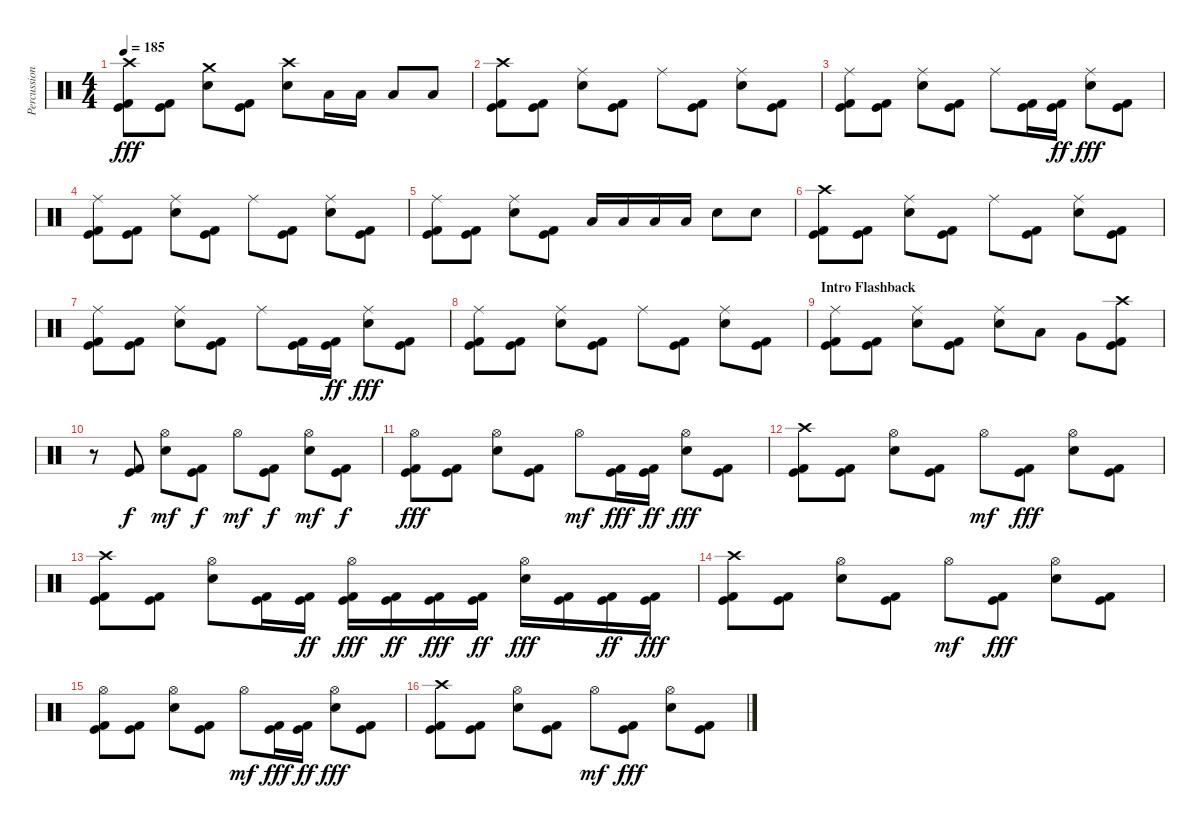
\track ("Percussion" "Percussion") {instrument percussion}
\staff {score}
\articulation defaults
\ts (4 4)
\tempo 185
\clef neutral
\ks c
("Crash high (hit)" "Kick (hit)" "Kick (hit) 2").8{dy fff} ("Kick (hit)" "Kick (hit) 2").8 ("Crash medium (hit)" "Snare (hit) 2").8 ("Kick (hit)" "Kick (hit) 2").8 ("Crash high (hit)" "Snare (hit) 2").8 "Low Tom (hit)".16 "Low Tom (hit)".16 "Low Floor Tom (hit)".8 "Low Floor Tom (hit)".8 |
("Crash high (hit)" "Kick (hit)" "Kick (hit) 2").8 ("Kick (hit)" "Kick (hit) 2").8 ("Ride (middle)" "Snare (hit) 2").8 ("Kick (hit)" "Kick (hit) 2").8 "Ride (middle)".8 ("Kick (hit)" "Kick (hit) 2").8 ("Ride (middle)" "Snare (hit) 2").8 ("Kick (hit)" "Kick (hit) 2").8 |
("Ride (middle)" "Kick (hit)" "Kick (hit) 2").8 ("Kick (hit)" "Kick (hit) 2").8 ("Ride (middle)" "Snare (hit) 2").8 ("Kick (hit)" "Kick (hit) 2").8 "Ride (middle)".8 ("Kick (hit)" "Kick (hit) 2").16 ("Kick (hit)" "Kick (hit) 2").16{dy ff} ("Ride (middle)" "Snare (hit) 2").8{dy fff} ("Kick (hit)" "Kick (hit) 2").8 |
("Ride (middle)" "Kick (hit)" "Kick (hit) 2").8 ("Kick (hit)" "Kick (hit) 2").8 ("Ride (middle)" "Snare (hit) 2").8 ("Kick (hit)" "Kick (hit) 2").8 "Ride (middle)".8 ("Kick (hit)" "Kick (hit) 2").8 ("Ride (middle)" "Snare (hit) 2").8 ("Kick (hit)" "Kick (hit) 2").8 |
("Ride (middle)" "Kick (hit)" "Kick (hit) 2").8 ("Kick (hit)" "Kick (hit) 2").8 ("Ride (middle)" "Snare (hit) 2").8 ("Kick (hit)" "Kick (hit) 2").8 "Low Tom (hit)".16 "Low Tom (hit)".16 "Low Tom (hit)".16 "Low Tom (hit)".16 "Snare (hit) 2".8 "Snare (hit) 2".8 |
("Crash high (hit)" "Kick (hit)" "Kick (hit) 2").8 ("Kick (hit)" "Kick (hit) 2").8 ("Ride (middle)" "Snare (hit) 2").8 ("Kick (hit)" "Kick (hit) 2").8 "Ride (middle)".8 ("Kick (hit)" "Kick (hit) 2").8 ("Ride (middle)" "Snare (hit) 2").8 ("Kick (hit)" "Kick (hit) 2").8 |
("Ride (middle)" "Kick (hit)" "Kick (hit) 2").8 ("Kick (hit)" "Kick (hit) 2").8 ("Ride (middle)" "Snare (hit) 2").8 ("Kick (hit)" "Kick (hit) 2").8 "Ride (middle)".8 ("Kick (hit)" "Kick (hit) 2").16 ("Kick (hit)" "Kick (hit) 2").16{dy ff} ("Ride (middle)" "Snare (hit) 2").8{dy fff} ("Kick (hit)" "Kick (hit) 2").8 |
("Ride (middle)" "Kick (hit)" "Kick (hit) 2").8 ("Kick (hit)" "Kick (hit) 2").8 ("Ride (middle)" "Snare (hit) 2").8 ("Kick (hit)" "Kick (hit) 2").8 "Ride (middle)".8 ("Kick (hit)" "Kick (hit) 2").8 ("Ride (middle)" "Snare (hit) 2").8 ("Kick (hit)" "Kick (hit) 2").8 |
\section ("" "Intro Flashback")
("Ride (middle)" "Kick (hit)" "Kick (hit) 2").8 ("Kick (hit)" "Kick (hit) 2").8 ("Ride (middle)" "Snare (hit) 2").8 ("Kick (hit)" "Kick (hit) 2").8 ("Ride (middle)" "Snare (hit) 2").8 "Low Tom (hit)".8 "Very Low Tom (hit)".8 ("Crash high (hit)" "Kick (hit)" "Kick (hit) 2").8 |
r.8 ("Kick (hit)" "Kick (hit) 2").8{dy f} ("Hi-Hat (open)" "Snare (hit) 2").8{dy mf} ("Kick (hit)" "Kick (hit) 2").8{dy f} "Hi-Hat (open)".8{dy mf} ("Kick (hit)" "Kick (hit) 2").8{dy f} ("Hi-Hat (open)" "Snare (hit) 2").8{dy mf} ("Kick (hit)" "Kick (hit) 2").8{dy f} |
("Hi-Hat (open)" "Kick (hit)" "Kick (hit) 2").8{dy fff} ("Kick (hit)" "Kick (hit) 2").8 ("Hi-Hat (open)" "Snare (hit) 2").8 ("Kick (hit)" "Kick (hit) 2").8 "Hi-Hat (open)".8{dy mf} ("Kick (hit)" "Kick (hit) 2").16{dy fff} ("Kick (hit)" "Kick (hit) 2").16{dy ff} ("Hi-Hat (open)" "Snare (hit) 2").8{dy fff} ("Kick (hit)" "Kick (hit) 2").8 |
("Crash high (hit)" "Kick (hit)" "Kick (hit) 2").8 ("Kick (hit)" "Kick (hit) 2").8 ("Hi-Hat (open)" "Snare (hit) 2").8 ("Kick (hit)" "Kick (hit) 2").8 "Hi-Hat (open)".8{dy mf} ("Kick (hit)" "Kick (hit) 2").8{dy fff} ("Hi-Hat (open)" "Snare (hit) 2").8 ("Kick (hit)" "Kick (hit) 2").8 |
("Crash high (hit)" "Kick (hit)" "Kick (hit) 2").8 ("Kick (hit)" "Kick (hit) 2").8 ("Hi-Hat (open)" "Snare (hit) 2").8 ("Kick (hit)" "Kick (hit) 2").16 ("Kick (hit)" "Kick (hit) 2").16{dy ff} ("Hi-Hat (open)" "Kick (hit)" "Kick (hit) 2").16{dy fff} ("Kick (hit)" "Kick (hit) 2").16{dy ff} ("Kick (hit)" "Kick (hit) 2").16{dy fff} ("Kick (hit)" "Kick (hit) 2").16{dy ff} ("Hi-Hat (open)" "Snare (hit) 2").16{dy fff} ("Kick (hit)" "Kick (hit) 2").16 ("Kick (hit)" "Kick (hit) 2").16{dy ff} ("Kick (hit)" "Kick (hit) 2").16{dy fff} |
("Crash high (hit)" "Kick (hit)" "Kick (hit) 2").8 ("Kick (hit)" "Kick (hit) 2").8 ("Hi-Hat (open)" "Snare (hit) 2").8 ("Kick (hit)" "Kick (hit) 2").8 "Hi-Hat (open)".8{dy mf} ("Kick (hit)" "Kick (hit) 2").8{dy fff} ("Hi-Hat (open)" "Snare (hit) 2").8 ("Kick (hit)" "Kick (hit) 2").8 |
("Hi-Hat (open)" "Kick (hit)" "Kick (hit) 2").8 ("Kick (hit)" "Kick (hit) 2").8 ("Hi-Hat (open)" "Snare (hit) 2").8 ("Kick (hit)" "Kick (hit) 2").8 "Hi-Hat (open)".8{dy mf} ("Kick (hit)" "Kick (hit) 2").16{dy fff} ("Kick (hit)" "Kick (hit) 2").16{dy ff} ("Hi-Hat (open)" "Snare (hit) 2").8{dy fff} ("Kick (hit)" "Kick (hit) 2").8 |
("Crash high (hit)" "Kick (hit)" "Kick (hit) 2").8 ("Kick (hit)" "Kick (hit) 2").8 ("Hi-Hat (open)" "Snare (hit) 2").8 ("Kick (hit)" "Kick (hit) 2").8 "Hi-Hat (open)".8{dy mf} ("Kick (hit)" "Kick (hit) 2").8{dy fff} ("Hi-Hat (open)" "Snare (hit) 2").8 ("Kick (hit)" "Kick (hit) 2").8
